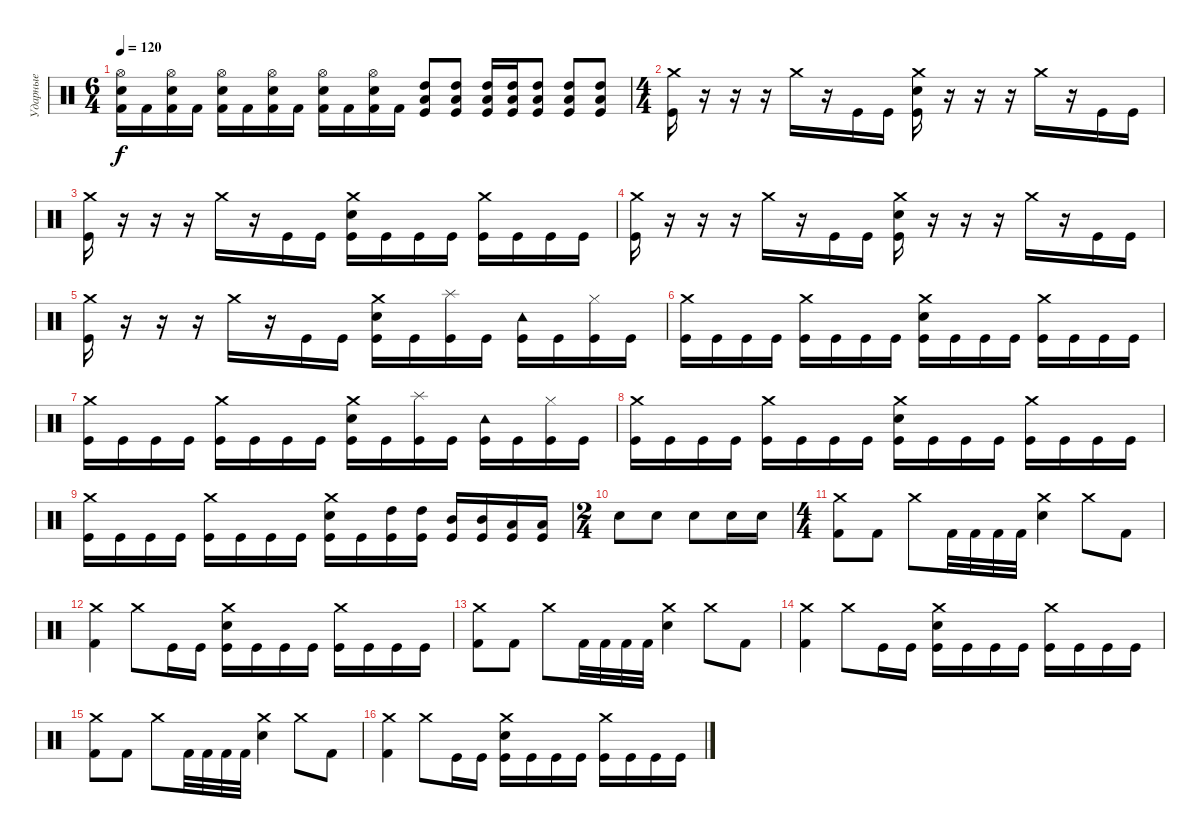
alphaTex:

\track ("Ударные" "Ударные") {instrument percussion}
\staff {score}
\articulation defaults
\ts (6 4)
\tempo 120
\clef neutral
\ks c
("Hi-Hat (open)" "Snare (hit) 2" "Kick (hit) 2").16{dy f} "Kick (hit) 2".16 ("Hi-Hat (open)" "Snare (hit) 2" "Kick (hit) 2").16 "Kick (hit) 2".16 ("Hi-Hat (open)" "Snare (hit) 2" "Kick (hit) 2").16 "Kick (hit) 2".16 ("Hi-Hat (open)" "Snare (hit) 2" "Kick (hit) 2").16 "Kick (hit) 2".16 ("Hi-Hat (open)" "Snare (hit) 2" "Kick (hit) 2").16 "Kick (hit) 2".16 ("Hi-Hat (open)" "Snare (hit) 2" "Kick (hit) 2").16 "Kick (hit) 2".16 ("Low Tom (hit)" "High Tom (hit)" "Kick (hit)").8 ("Low Tom (hit)" "High Tom (hit)" "Kick (hit)").8 ("Low Tom (hit)" "High Tom (hit)" "Kick (hit)").16 ("Low Tom (hit)" "High Tom (hit)" "Kick (hit)").16 ("Low Tom (hit)" "High Tom (hit)" "Kick (hit)").8 ("Low Tom (hit)" "High Tom (hit)" "Kick (hit)").8 ("Low Tom (hit)" "High Tom (hit)" "Kick (hit)").8 |
\ts (4 4)
("Crash medium (hit)" "Kick (hit)").16 r.16 r.16 r.16 "Crash medium (hit)".16 r.16 "Kick (hit)".16 "Kick (hit)".16 ("Crash medium (hit)" "Snare (hit) 2" "Kick (hit)").16 r.16 r.16 r.16 "Crash medium (hit)".16 r.16 "Kick (hit)".16 "Kick (hit)".16 |
("Crash medium (hit)" "Kick (hit)").16 r.16 r.16 r.16 "Crash medium (hit)".16 r.16 "Kick (hit)".16 "Kick (hit)".16 ("Crash medium (hit)" "Snare (hit) 2" "Kick (hit)").16 "Kick (hit)".16 "Kick (hit)".16 "Kick (hit)".16 ("Crash medium (hit)" "Kick (hit)").16 "Kick (hit)".16 "Kick (hit)".16 "Kick (hit)".16 |
("Crash medium (hit)" "Kick (hit)").16 r.16 r.16 r.16 "Crash medium (hit)".16 r.16 "Kick (hit)".16 "Kick (hit)".16 ("Crash medium (hit)" "Snare (hit) 2" "Kick (hit)").16 r.16 r.16 r.16 "Crash medium (hit)".16 r.16 "Kick (hit)".16 "Kick (hit)".16 |
("Crash medium (hit)" "Kick (hit)").16 r.16 r.16 r.16 "Crash medium (hit)".16 r.16 "Kick (hit)".16 "Kick (hit)".16 ("Crash medium (hit)" "Snare (hit) 2" "Kick (hit)").16 "Kick (hit)".16 ("Splash (hit)" "Kick (hit)").16 "Kick (hit)".16 ("Tambourine (hit)" "Kick (hit)").16 "Kick (hit)".16 ("Hi-Hat (closed)" "Kick (hit)").16 "Kick (hit)".16 |
("Crash medium (hit)" "Kick (hit)").16 "Kick (hit)".16 "Kick (hit)".16 "Kick (hit)".16 ("Crash medium (hit)" "Kick (hit)").16 "Kick (hit)".16 "Kick (hit)".16 "Kick (hit)".16 ("Crash medium (hit)" "Snare (hit) 2" "Kick (hit)").16 "Kick (hit)".16 "Kick (hit)".16 "Kick (hit)".16 ("Crash medium (hit)" "Kick (hit)").16 "Kick (hit)".16 "Kick (hit)".16 "Kick (hit)".16 |
("Crash medium (hit)" "Kick (hit)").16 "Kick (hit)".16 "Kick (hit)".16 "Kick (hit)".16 ("Crash medium (hit)" "Kick (hit)").16 "Kick (hit)".16 "Kick (hit)".16 "Kick (hit)".16 ("Crash medium (hit)" "Snare (hit) 2" "Kick (hit)").16 "Kick (hit)".16 ("Splash (hit)" "Kick (hit)").16 "Kick (hit)".16 ("Tambourine (hit)" "Kick (hit)").16 "Kick (hit)".16 ("Hi-Hat (closed)" "Kick (hit)").16 "Kick (hit)".16 |
("Crash medium (hit)" "Kick (hit)").16 "Kick (hit)".16 "Kick (hit)".16 "Kick (hit)".16 ("Crash medium (hit)" "Kick (hit)").16 "Kick (hit)".16 "Kick (hit)".16 "Kick (hit)".16 ("Crash medium (hit)" "Snare (hit) 2" "Kick (hit)").16 "Kick (hit)".16 "Kick (hit)".16 "Kick (hit)".16 ("Crash medium (hit)" "Kick (hit)").16 "Kick (hit)".16 "Kick (hit)".16 "Kick (hit)".16 |
("Crash medium (hit)" "Kick (hit)").16 "Kick (hit)".16 "Kick (hit)".16 "Kick (hit)".16 ("Crash medium (hit)" "Kick (hit)").16 "Kick (hit)".16 "Kick (hit)".16 "Kick (hit)".16 ("Crash medium (hit)" "Snare (hit) 2" "Kick (hit)").16 "Kick (hit)".16 ("High Tom (hit)" "Kick (hit)").16 ("High Tom (hit)" "Kick (hit)").16 ("Mid Tom (hit)" "Kick (hit)").16 ("Mid Tom (hit)" "Kick (hit)").16 ("Low Tom (hit)" "Kick (hit)").16 ("Low Tom (hit)" "Kick (hit)").16 |
\ts (2 4)
"Snare (hit) 2".8 "Snare (hit) 2".8 "Snare (hit) 2".8 "Snare (hit) 2".16 "Snare (hit) 2".16 |
\ts (4 4)
("Crash medium (hit)" "Kick (hit) 2").8 "Kick (hit) 2".8 "Crash medium (hit)".8 "Kick (hit) 2".32 "Kick (hit) 2".32 "Kick (hit) 2".32 "Kick (hit) 2".32 ("Crash medium (hit)" "Snare (hit) 2").4 "Crash medium (hit)".8 "Kick (hit) 2".8 |
("Crash medium (hit)" "Kick (hit) 2").4 "Crash medium (hit)".8 "Kick (hit)".16 "Kick (hit)".16 ("Crash medium (hit)" "Snare (hit) 2" "Kick (hit)").16 "Kick (hit)".16 "Kick (hit)".16 "Kick (hit)".16 ("Crash medium (hit)" "Kick (hit)").16 "Kick (hit)".16 "Kick (hit)".16 "Kick (hit)".16 |
("Crash medium (hit)" "Kick (hit) 2").8 "Kick (hit) 2".8 "Crash medium (hit)".8 "Kick (hit) 2".32 "Kick (hit) 2".32 "Kick (hit) 2".32 "Kick (hit) 2".32 ("Crash medium (hit)" "Snare (hit) 2").4 "Crash medium (hit)".8 "Kick (hit) 2".8 |
("Crash medium (hit)" "Kick (hit) 2").4 "Crash medium (hit)".8 "Kick (hit)".16 "Kick (hit)".16 ("Crash medium (hit)" "Snare (hit) 2" "Kick (hit)").16 "Kick (hit)".16 "Kick (hit)".16 "Kick (hit)".16 ("Crash medium (hit)" "Kick (hit)").16 "Kick (hit)".16 "Kick (hit)".16 "Kick (hit)".16 |
("Crash medium (hit)" "Kick (hit) 2").8 "Kick (hit) 2".8 "Crash medium (hit)".8 "Kick (hit) 2".32 "Kick (hit) 2".32 "Kick (hit) 2".32 "Kick (hit) 2".32 ("Crash medium (hit)" "Snare (hit) 2").4 "Crash medium (hit)".8 "Kick (hit) 2".8 |
("Crash medium (hit)" "Kick (hit) 2").4 "Crash medium (hit)".8 "Kick (hit)".16 "Kick (hit)".16 ("Crash medium (hit)" "Snare (hit) 2" "Kick (hit)").16 "Kick (hit)".16 "Kick (hit)".16 "Kick (hit)".16 ("Crash medium (hit)" "Kick (hit)").16 "Kick (hit)".16 "Kick (hit)".16 "Kick (hit)".16
